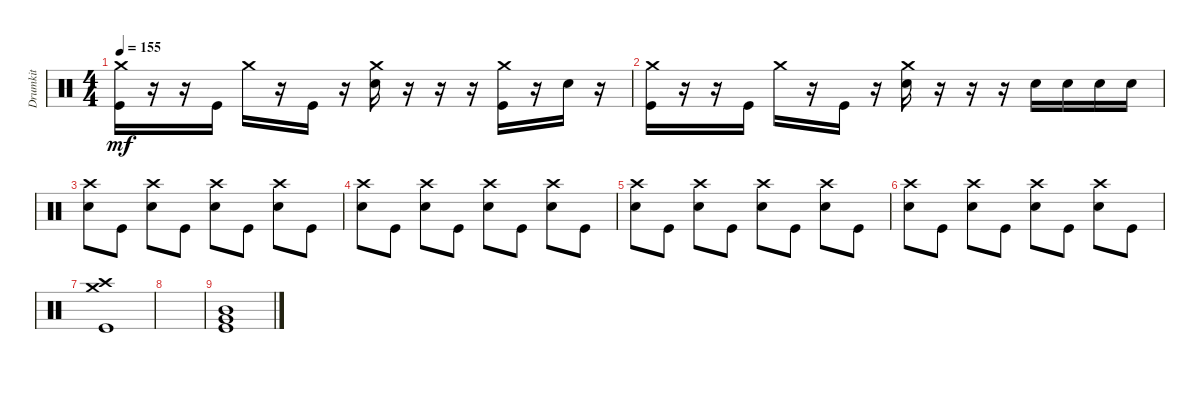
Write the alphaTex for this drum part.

\track ("Drumkit" "Drumkit") {instrument percussion}
\staff {score}
\articulation defaults
\ts (4 4)
\tempo 155
\clef neutral
\ks c
("Kick (hit)" "Crash medium (hit)").16{dy mf} r.16 r.16 "Kick (hit)".16 "Crash medium (hit)".16 r.16 "Kick (hit)".16 r.16 ("Snare (hit) 2" "Crash medium (hit)").16 r.16 r.16 r.16 ("Kick (hit)" "Crash medium (hit)").16 r.16 "Snare (hit) 2".16 r.16 |
("Kick (hit)" "Crash medium (hit)").16 r.16 r.16 "Kick (hit)".16 "Crash medium (hit)".16 r.16 "Kick (hit)".16 r.16 ("Snare (hit) 2" "Crash medium (hit)").16 r.16 r.16 r.16 "Snare (hit) 2".16 "Snare (hit) 2".16 "Snare (hit) 2".16 "Snare (hit) 2".16 |
("Snare (hit) 2" "Crash high (hit)").8 "Kick (hit)".8 ("Snare (hit) 2" "Crash high (hit)").8 "Kick (hit)".8 ("Snare (hit) 2" "Crash high (hit)").8 "Kick (hit)".8 ("Snare (hit) 2" "Crash high (hit)").8 "Kick (hit)".8 |
("Snare (hit) 2" "Crash high (hit)").8 "Kick (hit)".8 ("Snare (hit) 2" "Crash high (hit)").8 "Kick (hit)".8 ("Snare (hit) 2" "Crash high (hit)").8 "Kick (hit)".8 ("Snare (hit) 2" "Crash high (hit)").8 "Kick (hit)".8 |
("Snare (hit) 2" "Crash high (hit)").8 "Kick (hit)".8 ("Snare (hit) 2" "Crash high (hit)").8 "Kick (hit)".8 ("Snare (hit) 2" "Crash high (hit)").8 "Kick (hit)".8 ("Snare (hit) 2" "Crash high (hit)").8 "Kick (hit)".8 |
("Snare (hit) 2" "Crash high (hit)").8 "Kick (hit)".8 ("Snare (hit) 2" "Crash high (hit)").8 "Kick (hit)".8 ("Snare (hit) 2" "Crash high (hit)").8 "Kick (hit)".8 ("Snare (hit) 2" "Crash high (hit)").8 "Kick (hit)".8 |
("Kick (hit)" "Crash high (hit)" "Crash medium (hit)").1 |
|
("Kick (hit)" "Very Low Tom (hit)" "Mid Tom (hit)").1
